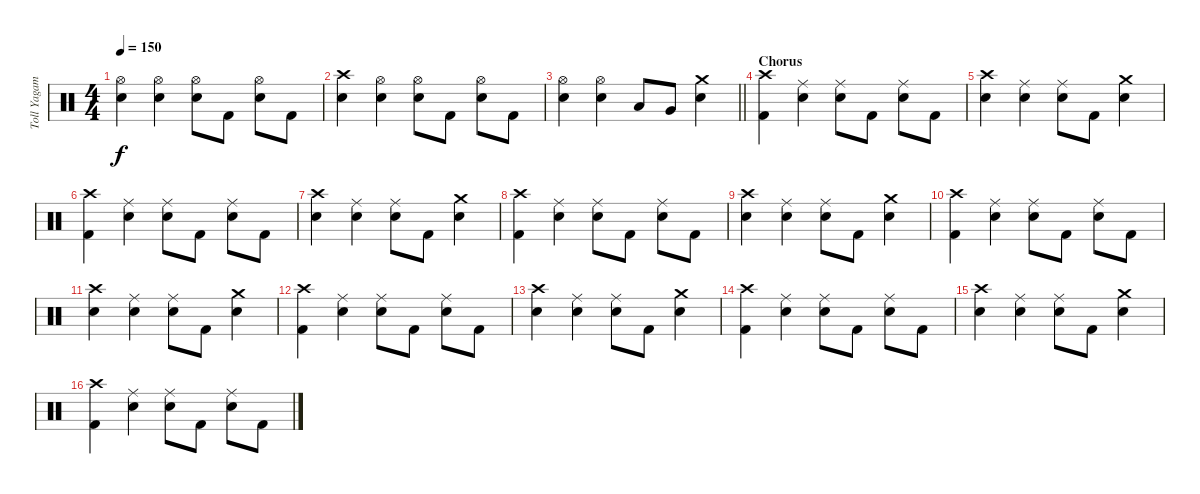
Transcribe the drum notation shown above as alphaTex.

\track ("Toll Yagami" "Toll Yagam") {instrument percussion}
\staff {score}
\articulation defaults
\ts (4 4)
\tempo 150
\clef neutral
\ks c
("Hi-Hat (open)" "Electric Snare (hit)").4{dy f} ("Hi-Hat (open)" "Electric Snare (hit)").4 ("Hi-Hat (open)" "Electric Snare (hit)").8 "Kick (hit) 2".8 ("Hi-Hat (open)" "Electric Snare (hit)").8 "Kick (hit) 2".8 |
("Crash high (hit)" "Electric Snare (hit)").4 ("Hi-Hat (open)" "Electric Snare (hit)").4 ("Hi-Hat (open)" "Electric Snare (hit)").8 "Kick (hit) 2".8 ("Hi-Hat (open)" "Electric Snare (hit)").8 "Kick (hit) 2".8 |
\barLineRight lightlight
("Hi-Hat (open)" "Electric Snare (hit)").4 ("Hi-Hat (open)" "Electric Snare (hit)").4 "Low Tom (hit)".8 "Very Low Tom (hit)".8 ("Crash medium (hit)" "Electric Snare (hit)").4 |
\section ("" "Chorus")
("Crash high (hit)" "Kick (hit) 2").4 ("Ride (middle)" "Electric Snare (hit)").4 ("Ride (middle)" "Electric Snare (hit)").8 "Kick (hit) 2".8 ("Ride (middle)" "Electric Snare (hit)").8 "Kick (hit) 2".8 |
("Crash high (hit)" "Electric Snare (hit)").4 ("Ride (middle)" "Electric Snare (hit)").4 ("Ride (middle)" "Electric Snare (hit)").8 "Kick (hit) 2".8 ("Crash medium (hit)" "Electric Snare (hit)").4 |
("Crash high (hit)" "Kick (hit) 2").4 ("Ride (middle)" "Electric Snare (hit)").4 ("Ride (middle)" "Electric Snare (hit)").8 "Kick (hit) 2".8 ("Ride (middle)" "Electric Snare (hit)").8 "Kick (hit) 2".8 |
("Crash high (hit)" "Electric Snare (hit)").4 ("Ride (middle)" "Electric Snare (hit)").4 ("Ride (middle)" "Electric Snare (hit)").8 "Kick (hit) 2".8 ("Crash medium (hit)" "Electric Snare (hit)").4 |
("Crash high (hit)" "Kick (hit) 2").4 ("Ride (middle)" "Electric Snare (hit)").4 ("Ride (middle)" "Electric Snare (hit)").8 "Kick (hit) 2".8 ("Ride (middle)" "Electric Snare (hit)").8 "Kick (hit) 2".8 |
("Crash high (hit)" "Electric Snare (hit)").4 ("Ride (middle)" "Electric Snare (hit)").4 ("Ride (middle)" "Electric Snare (hit)").8 "Kick (hit) 2".8 ("Crash medium (hit)" "Electric Snare (hit)").4 |
("Crash high (hit)" "Kick (hit) 2").4 ("Ride (middle)" "Electric Snare (hit)").4 ("Ride (middle)" "Electric Snare (hit)").8 "Kick (hit) 2".8 ("Ride (middle)" "Electric Snare (hit)").8 "Kick (hit) 2".8 |
("Crash high (hit)" "Electric Snare (hit)").4 ("Ride (middle)" "Electric Snare (hit)").4 ("Ride (middle)" "Electric Snare (hit)").8 "Kick (hit) 2".8 ("Crash medium (hit)" "Electric Snare (hit)").4 |
("Crash high (hit)" "Kick (hit) 2").4 ("Ride (middle)" "Electric Snare (hit)").4 ("Ride (middle)" "Electric Snare (hit)").8 "Kick (hit) 2".8 ("Ride (middle)" "Electric Snare (hit)").8 "Kick (hit) 2".8 |
("Crash high (hit)" "Electric Snare (hit)").4 ("Ride (middle)" "Electric Snare (hit)").4 ("Ride (middle)" "Electric Snare (hit)").8 "Kick (hit) 2".8 ("Crash medium (hit)" "Electric Snare (hit)").4 |
("Crash high (hit)" "Kick (hit) 2").4 ("Ride (middle)" "Electric Snare (hit)").4 ("Ride (middle)" "Electric Snare (hit)").8 "Kick (hit) 2".8 ("Ride (middle)" "Electric Snare (hit)").8 "Kick (hit) 2".8 |
("Crash high (hit)" "Electric Snare (hit)").4 ("Ride (middle)" "Electric Snare (hit)").4 ("Ride (middle)" "Electric Snare (hit)").8 "Kick (hit) 2".8 ("Crash medium (hit)" "Electric Snare (hit)").4 |
("Crash high (hit)" "Kick (hit) 2").4 ("Ride (middle)" "Electric Snare (hit)").4 ("Ride (middle)" "Electric Snare (hit)").8 "Kick (hit) 2".8 ("Ride (middle)" "Electric Snare (hit)").8 "Kick (hit) 2".8
